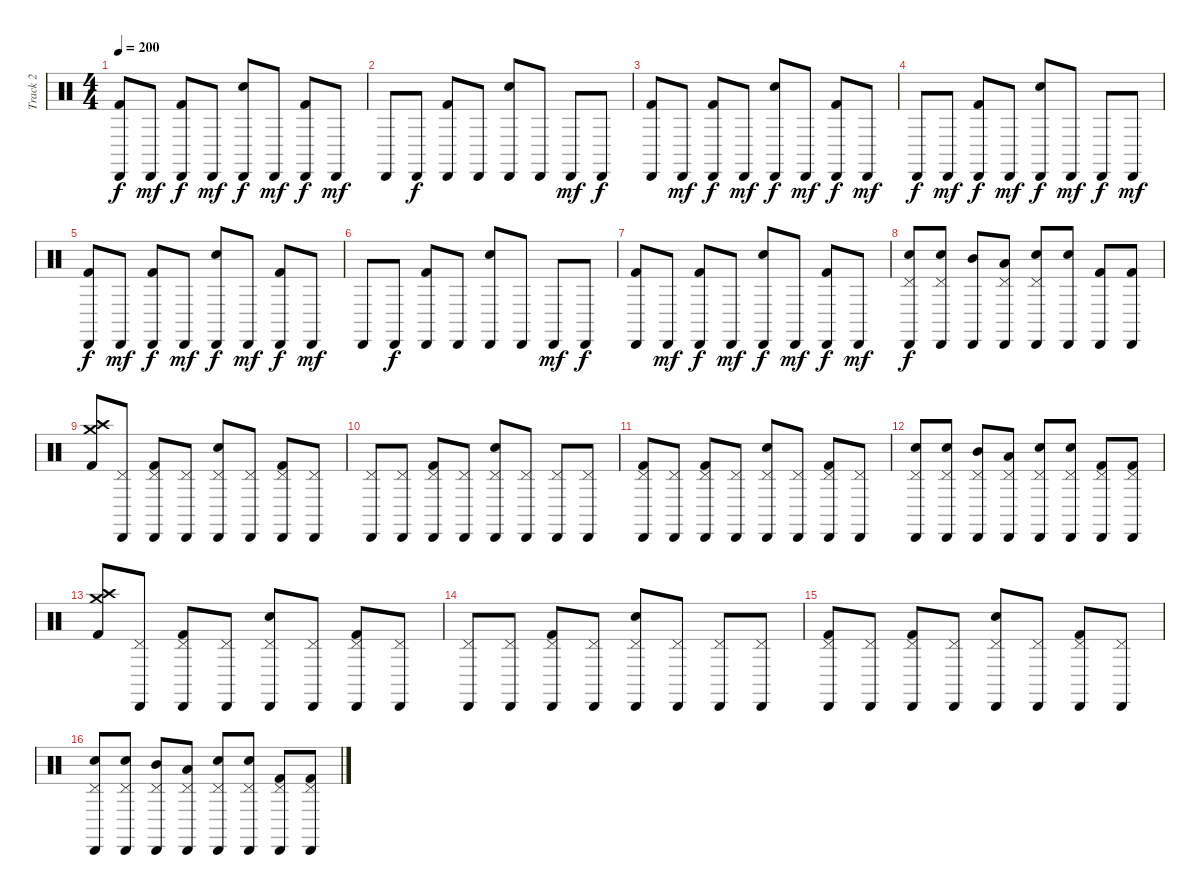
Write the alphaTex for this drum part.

\track ("Track 2" "Track 2") {instrument percussion}
\staff {score}
\articulation defaults
\ts (4 4)
\tempo 200
\clef neutral
\ks c
("Cabasa (hit)" "Kick (hit) 2").8{dy f} "Cabasa (hit)".8{dy mf} ("Cabasa (hit)" "Kick (hit) 2").8{dy f} "Cabasa (hit)".8{dy mf} ("Cabasa (hit)" "Snare (hit) 2").8{dy f} "Cabasa (hit)".8{dy mf} ("Cabasa (hit)" "Kick (hit) 2").8{dy f} "Cabasa (hit)".8{dy mf} |
"Cabasa (hit)".8 "Cabasa (hit)".8{dy f} ("Cabasa (hit)" "Kick (hit) 2").8 "Cabasa (hit)".8 ("Cabasa (hit)" "Snare (hit) 2").8 "Cabasa (hit)".8 "Cabasa (hit)".8{dy mf} "Cabasa (hit)".8{dy f} |
("Cabasa (hit)" "Kick (hit) 2").8 "Cabasa (hit)".8{dy mf} ("Cabasa (hit)" "Kick (hit) 2").8{dy f} "Cabasa (hit)".8{dy mf} ("Cabasa (hit)" "Snare (hit) 2").8{dy f} "Cabasa (hit)".8{dy mf} ("Cabasa (hit)" "Kick (hit) 2").8{dy f} "Cabasa (hit)".8{dy mf} |
"Cabasa (hit)".8{dy f} "Cabasa (hit)".8{dy mf} ("Cabasa (hit)" "Kick (hit) 2").8{dy f} "Cabasa (hit)".8{dy mf} ("Cabasa (hit)" "Snare (hit) 2").8{dy f} "Cabasa (hit)".8{dy mf} "Cabasa (hit)".8{dy f} "Cabasa (hit)".8{dy mf} |
("Cabasa (hit)" "Kick (hit) 2").8{dy f} "Cabasa (hit)".8{dy mf} ("Cabasa (hit)" "Kick (hit) 2").8{dy f} "Cabasa (hit)".8{dy mf} ("Cabasa (hit)" "Snare (hit) 2").8{dy f} "Cabasa (hit)".8{dy mf} ("Cabasa (hit)" "Kick (hit) 2").8{dy f} "Cabasa (hit)".8{dy mf} |
"Cabasa (hit)".8 "Cabasa (hit)".8{dy f} ("Cabasa (hit)" "Kick (hit) 2").8 "Cabasa (hit)".8 ("Cabasa (hit)" "Snare (hit) 2").8 "Cabasa (hit)".8 "Cabasa (hit)".8{dy mf} "Cabasa (hit)".8{dy f} |
("Cabasa (hit)" "Kick (hit) 2").8 "Cabasa (hit)".8{dy mf} ("Cabasa (hit)" "Kick (hit) 2").8{dy f} "Cabasa (hit)".8{dy mf} ("Cabasa (hit)" "Snare (hit) 2").8{dy f} "Cabasa (hit)".8{dy mf} ("Cabasa (hit)" "Kick (hit) 2").8{dy f} "Cabasa (hit)".8{dy mf} |
("Cabasa (hit)" "Pedal Hi-Hat (hit)" "Snare (hit) 2").8{dy f} ("Cabasa (hit)" "Pedal Hi-Hat (hit)" "Snare (hit) 2").8 ("Cabasa (hit)" "Mid Tom (hit)").8 ("Cabasa (hit)" "Pedal Hi-Hat (hit)" "Low Floor Tom (hit)").8 ("Cabasa (hit)" "Pedal Hi-Hat (hit)" "Snare (hit) 2").8 ("Cabasa (hit)" "Snare (hit) 2").8 ("Cabasa (hit)" "Kick (hit) 2").8 ("Cabasa (hit)" "Kick (hit) 2").8 |
("Crash high (hit)" "Crash medium (hit)" "Kick (hit) 2").8 ("Cabasa (hit)" "Pedal Hi-Hat (hit)").8 ("Cabasa (hit)" "Pedal Hi-Hat (hit)" "Kick (hit) 2").8 ("Cabasa (hit)" "Pedal Hi-Hat (hit)").8 ("Cabasa (hit)" "Pedal Hi-Hat (hit)" "Snare (hit) 2").8 ("Cabasa (hit)" "Pedal Hi-Hat (hit)").8 ("Cabasa (hit)" "Pedal Hi-Hat (hit)" "Kick (hit) 2").8 ("Cabasa (hit)" "Pedal Hi-Hat (hit)").8 |
("Cabasa (hit)" "Pedal Hi-Hat (hit)").8 ("Cabasa (hit)" "Pedal Hi-Hat (hit)").8 ("Cabasa (hit)" "Pedal Hi-Hat (hit)" "Kick (hit) 2").8 ("Cabasa (hit)" "Pedal Hi-Hat (hit)").8 ("Cabasa (hit)" "Pedal Hi-Hat (hit)" "Snare (hit) 2").8 ("Cabasa (hit)" "Pedal Hi-Hat (hit)").8 ("Cabasa (hit)" "Pedal Hi-Hat (hit)").8 ("Cabasa (hit)" "Pedal Hi-Hat (hit)").8 |
("Cabasa (hit)" "Pedal Hi-Hat (hit)" "Kick (hit) 2").8 ("Cabasa (hit)" "Pedal Hi-Hat (hit)").8 ("Cabasa (hit)" "Pedal Hi-Hat (hit)" "Kick (hit) 2").8 ("Cabasa (hit)" "Pedal Hi-Hat (hit)").8 ("Cabasa (hit)" "Pedal Hi-Hat (hit)" "Snare (hit) 2").8 ("Cabasa (hit)" "Pedal Hi-Hat (hit)").8 ("Cabasa (hit)" "Pedal Hi-Hat (hit)" "Kick (hit) 2").8 ("Cabasa (hit)" "Pedal Hi-Hat (hit)").8 |
("Cabasa (hit)" "Pedal Hi-Hat (hit)" "Snare (hit) 2").8 ("Cabasa (hit)" "Pedal Hi-Hat (hit)" "Snare (hit) 2").8 ("Cabasa (hit)" "Pedal Hi-Hat (hit)" "Mid Tom (hit)").8 ("Cabasa (hit)" "Pedal Hi-Hat (hit)" "Low Floor Tom (hit)").8 ("Cabasa (hit)" "Pedal Hi-Hat (hit)" "Snare (hit) 2").8 ("Cabasa (hit)" "Pedal Hi-Hat (hit)" "Snare (hit) 2").8 ("Cabasa (hit)" "Pedal Hi-Hat (hit)" "Kick (hit) 2").8 ("Cabasa (hit)" "Pedal Hi-Hat (hit)" "Kick (hit) 2").8 |
("Crash high (hit)" "Crash medium (hit)" "Kick (hit) 2").8 ("Cabasa (hit)" "Pedal Hi-Hat (hit)").8 ("Cabasa (hit)" "Pedal Hi-Hat (hit)" "Kick (hit) 2").8 ("Cabasa (hit)" "Pedal Hi-Hat (hit)").8 ("Cabasa (hit)" "Pedal Hi-Hat (hit)" "Snare (hit) 2").8 ("Cabasa (hit)" "Pedal Hi-Hat (hit)").8 ("Cabasa (hit)" "Pedal Hi-Hat (hit)" "Kick (hit) 2").8 ("Cabasa (hit)" "Pedal Hi-Hat (hit)").8 |
("Cabasa (hit)" "Pedal Hi-Hat (hit)").8 ("Cabasa (hit)" "Pedal Hi-Hat (hit)").8 ("Cabasa (hit)" "Pedal Hi-Hat (hit)" "Kick (hit) 2").8 ("Cabasa (hit)" "Pedal Hi-Hat (hit)").8 ("Cabasa (hit)" "Pedal Hi-Hat (hit)" "Snare (hit) 2").8 ("Cabasa (hit)" "Pedal Hi-Hat (hit)").8 ("Cabasa (hit)" "Pedal Hi-Hat (hit)").8 ("Cabasa (hit)" "Pedal Hi-Hat (hit)").8 |
("Cabasa (hit)" "Pedal Hi-Hat (hit)" "Kick (hit) 2").8 ("Cabasa (hit)" "Pedal Hi-Hat (hit)").8 ("Cabasa (hit)" "Pedal Hi-Hat (hit)" "Kick (hit) 2").8 ("Cabasa (hit)" "Pedal Hi-Hat (hit)").8 ("Cabasa (hit)" "Pedal Hi-Hat (hit)" "Snare (hit) 2").8 ("Cabasa (hit)" "Pedal Hi-Hat (hit)").8 ("Cabasa (hit)" "Pedal Hi-Hat (hit)" "Kick (hit) 2").8 ("Cabasa (hit)" "Pedal Hi-Hat (hit)").8 |
("Cabasa (hit)" "Pedal Hi-Hat (hit)" "Snare (hit) 2").8 ("Cabasa (hit)" "Pedal Hi-Hat (hit)" "Snare (hit) 2").8 ("Cabasa (hit)" "Pedal Hi-Hat (hit)" "Mid Tom (hit)").8 ("Cabasa (hit)" "Pedal Hi-Hat (hit)" "Low Floor Tom (hit)").8 ("Cabasa (hit)" "Pedal Hi-Hat (hit)" "Snare (hit) 2").8 ("Cabasa (hit)" "Pedal Hi-Hat (hit)" "Snare (hit) 2").8 ("Cabasa (hit)" "Pedal Hi-Hat (hit)" "Kick (hit) 2").8 ("Cabasa (hit)" "Pedal Hi-Hat (hit)" "Kick (hit) 2").8
